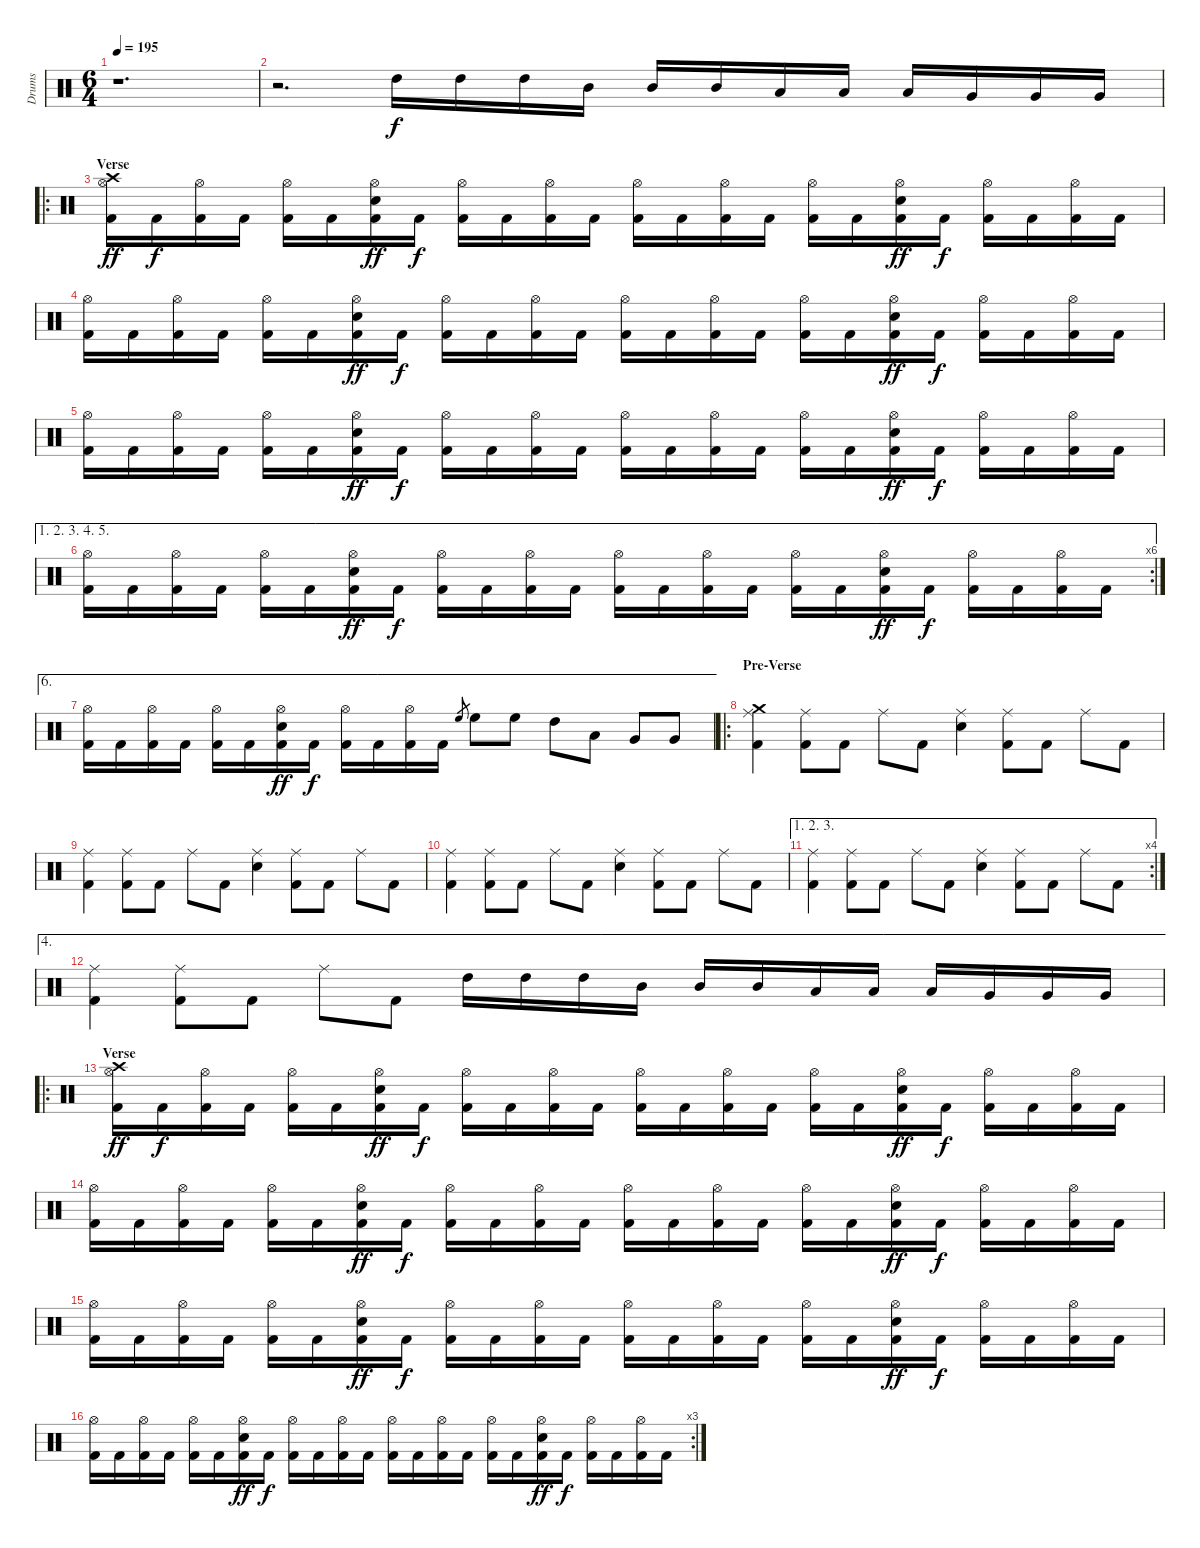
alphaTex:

\track ("Drums" "Drums") {instrument percussion}
\staff {score}
\articulation defaults
\ts (6 4)
\tempo 195
\clef neutral
\ks c
r.1{d dy f} |
r.2{d} "High Tom (hit)".16 "High Tom (hit)".16 "High Tom (hit)".16 "Mid Tom (hit)".16 "Mid Tom (hit)".16 "Mid Tom (hit)".16 "Low Tom (hit)".16 "Low Tom (hit)".16 "Low Tom (hit)".16 "Very Low Tom (hit)".16 "Very Low Tom (hit)".16 "Very Low Tom (hit)".16 |
\ro
\section ("" "Verse")
("Hi-Hat (open)" "Crash high (hit)" "Kick (hit) 2").16{dy ff} "Kick (hit) 2".16{dy f} ("Hi-Hat (open)" "Kick (hit) 2").16 "Kick (hit) 2".16 ("Hi-Hat (open)" "Kick (hit) 2").16 "Kick (hit) 2".16 ("Hi-Hat (open)" "Electric Snare (hit)" "Kick (hit) 2").16{dy ff} "Kick (hit) 2".16{dy f} ("Hi-Hat (open)" "Kick (hit) 2").16 "Kick (hit) 2".16 ("Hi-Hat (open)" "Kick (hit) 2").16 "Kick (hit) 2".16 ("Hi-Hat (open)" "Kick (hit) 2").16 "Kick (hit) 2".16 ("Hi-Hat (open)" "Kick (hit) 2").16 "Kick (hit) 2".16 ("Hi-Hat (open)" "Kick (hit) 2").16 "Kick (hit) 2".16 ("Hi-Hat (open)" "Electric Snare (hit)" "Kick (hit) 2").16{dy ff} "Kick (hit) 2".16{dy f} ("Hi-Hat (open)" "Kick (hit) 2").16 "Kick (hit) 2".16 ("Hi-Hat (open)" "Kick (hit) 2").16 "Kick (hit) 2".16 |
("Hi-Hat (open)" "Kick (hit) 2").16 "Kick (hit) 2".16 ("Hi-Hat (open)" "Kick (hit) 2").16 "Kick (hit) 2".16 ("Hi-Hat (open)" "Kick (hit) 2").16 "Kick (hit) 2".16 ("Hi-Hat (open)" "Electric Snare (hit)" "Kick (hit) 2").16{dy ff} "Kick (hit) 2".16{dy f} ("Hi-Hat (open)" "Kick (hit) 2").16 "Kick (hit) 2".16 ("Hi-Hat (open)" "Kick (hit) 2").16 "Kick (hit) 2".16 ("Hi-Hat (open)" "Kick (hit) 2").16 "Kick (hit) 2".16 ("Hi-Hat (open)" "Kick (hit) 2").16 "Kick (hit) 2".16 ("Hi-Hat (open)" "Kick (hit) 2").16 "Kick (hit) 2".16 ("Hi-Hat (open)" "Electric Snare (hit)" "Kick (hit) 2").16{dy ff} "Kick (hit) 2".16{dy f} ("Hi-Hat (open)" "Kick (hit) 2").16 "Kick (hit) 2".16 ("Hi-Hat (open)" "Kick (hit) 2").16 "Kick (hit) 2".16 |
("Hi-Hat (open)" "Kick (hit) 2").16 "Kick (hit) 2".16 ("Hi-Hat (open)" "Kick (hit) 2").16 "Kick (hit) 2".16 ("Hi-Hat (open)" "Kick (hit) 2").16 "Kick (hit) 2".16 ("Hi-Hat (open)" "Electric Snare (hit)" "Kick (hit) 2").16{dy ff} "Kick (hit) 2".16{dy f} ("Hi-Hat (open)" "Kick (hit) 2").16 "Kick (hit) 2".16 ("Hi-Hat (open)" "Kick (hit) 2").16 "Kick (hit) 2".16 ("Hi-Hat (open)" "Kick (hit) 2").16 "Kick (hit) 2".16 ("Hi-Hat (open)" "Kick (hit) 2").16 "Kick (hit) 2".16 ("Hi-Hat (open)" "Kick (hit) 2").16 "Kick (hit) 2".16 ("Hi-Hat (open)" "Electric Snare (hit)" "Kick (hit) 2").16{dy ff} "Kick (hit) 2".16{dy f} ("Hi-Hat (open)" "Kick (hit) 2").16 "Kick (hit) 2".16 ("Hi-Hat (open)" "Kick (hit) 2").16 "Kick (hit) 2".16 |
\ae (1 2 3 4 5)
\rc 6
("Hi-Hat (open)" "Kick (hit) 2").16 "Kick (hit) 2".16 ("Hi-Hat (open)" "Kick (hit) 2").16 "Kick (hit) 2".16 ("Hi-Hat (open)" "Kick (hit) 2").16 "Kick (hit) 2".16 ("Hi-Hat (open)" "Electric Snare (hit)" "Kick (hit) 2").16{dy ff} "Kick (hit) 2".16{dy f} ("Hi-Hat (open)" "Kick (hit) 2").16 "Kick (hit) 2".16 ("Hi-Hat (open)" "Kick (hit) 2").16 "Kick (hit) 2".16 ("Hi-Hat (open)" "Kick (hit) 2").16 "Kick (hit) 2".16 ("Hi-Hat (open)" "Kick (hit) 2").16 "Kick (hit) 2".16 ("Hi-Hat (open)" "Kick (hit) 2").16 "Kick (hit) 2".16 ("Hi-Hat (open)" "Electric Snare (hit)" "Kick (hit) 2").16{dy ff} "Kick (hit) 2".16{dy f} ("Hi-Hat (open)" "Kick (hit) 2").16 "Kick (hit) 2".16 ("Hi-Hat (open)" "Kick (hit) 2").16 "Kick (hit) 2".16 |
\ae 6
("Hi-Hat (open)" "Kick (hit) 2").16 "Kick (hit) 2".16 ("Hi-Hat (open)" "Kick (hit) 2").16 "Kick (hit) 2".16 ("Hi-Hat (open)" "Kick (hit) 2").16 "Kick (hit) 2".16 ("Hi-Hat (open)" "Electric Snare (hit)" "Kick (hit) 2").16{dy ff} "Kick (hit) 2".16{dy f} ("Hi-Hat (open)" "Kick (hit) 2").16 "Kick (hit) 2".16 ("Hi-Hat (open)" "Kick (hit) 2").16 "Kick (hit) 2".16 "High Floor Tom (hit)".8{gr} "High Floor Tom (hit)".8 "High Floor Tom (hit)".8 "High Tom (hit)".8 "Low Tom (hit)".8 "Very Low Tom (hit)".8 "Very Low Tom (hit)".8 |
\ro
\section ("" "Pre-Verse")
("Ride (middle)" "Crash medium (hit)" "Kick (hit) 2").4 ("Ride (middle)" "Kick (hit) 2").8 "Kick (hit) 2".8 "Ride (middle)".8 "Kick (hit) 2".8 ("Ride (middle)" "Electric Snare (hit)").4 ("Ride (middle)" "Kick (hit) 2").8 "Kick (hit) 2".8 "Ride (middle)".8 "Kick (hit) 2".8 |
("Ride (middle)" "Kick (hit) 2").4 ("Ride (middle)" "Kick (hit) 2").8 "Kick (hit) 2".8 "Ride (middle)".8 "Kick (hit) 2".8 ("Ride (middle)" "Electric Snare (hit)").4 ("Ride (middle)" "Kick (hit) 2").8 "Kick (hit) 2".8 "Ride (middle)".8 "Kick (hit) 2".8 |
("Ride (middle)" "Kick (hit) 2").4 ("Ride (middle)" "Kick (hit) 2").8 "Kick (hit) 2".8 "Ride (middle)".8 "Kick (hit) 2".8 ("Ride (middle)" "Electric Snare (hit)").4 ("Ride (middle)" "Kick (hit) 2").8 "Kick (hit) 2".8 "Ride (middle)".8 "Kick (hit) 2".8 |
\ae (1 2 3)
\rc 4
("Ride (middle)" "Kick (hit) 2").4 ("Ride (middle)" "Kick (hit) 2").8 "Kick (hit) 2".8 "Ride (middle)".8 "Kick (hit) 2".8 ("Ride (middle)" "Electric Snare (hit)").4 ("Ride (middle)" "Kick (hit) 2").8 "Kick (hit) 2".8 "Ride (middle)".8 "Kick (hit) 2".8 |
\ae 4
("Ride (middle)" "Kick (hit) 2").4 ("Ride (middle)" "Kick (hit) 2").8 "Kick (hit) 2".8 "Ride (middle)".8 "Kick (hit) 2".8 "High Tom (hit)".16 "High Tom (hit)".16 "High Tom (hit)".16 "Mid Tom (hit)".16 "Mid Tom (hit)".16 "Mid Tom (hit)".16 "Low Tom (hit)".16 "Low Tom (hit)".16 "Low Tom (hit)".16 "Very Low Tom (hit)".16 "Very Low Tom (hit)".16 "Very Low Tom (hit)".16 |
\ro
\section ("" "Verse")
("Hi-Hat (open)" "Crash high (hit)" "Kick (hit) 2").16{dy ff} "Kick (hit) 2".16{dy f} ("Hi-Hat (open)" "Kick (hit) 2").16 "Kick (hit) 2".16 ("Hi-Hat (open)" "Kick (hit) 2").16 "Kick (hit) 2".16 ("Hi-Hat (open)" "Electric Snare (hit)" "Kick (hit) 2").16{dy ff} "Kick (hit) 2".16{dy f} ("Hi-Hat (open)" "Kick (hit) 2").16 "Kick (hit) 2".16 ("Hi-Hat (open)" "Kick (hit) 2").16 "Kick (hit) 2".16 ("Hi-Hat (open)" "Kick (hit) 2").16 "Kick (hit) 2".16 ("Hi-Hat (open)" "Kick (hit) 2").16 "Kick (hit) 2".16 ("Hi-Hat (open)" "Kick (hit) 2").16 "Kick (hit) 2".16 ("Hi-Hat (open)" "Electric Snare (hit)" "Kick (hit) 2").16{dy ff} "Kick (hit) 2".16{dy f} ("Hi-Hat (open)" "Kick (hit) 2").16 "Kick (hit) 2".16 ("Hi-Hat (open)" "Kick (hit) 2").16 "Kick (hit) 2".16 |
("Hi-Hat (open)" "Kick (hit) 2").16 "Kick (hit) 2".16 ("Hi-Hat (open)" "Kick (hit) 2").16 "Kick (hit) 2".16 ("Hi-Hat (open)" "Kick (hit) 2").16 "Kick (hit) 2".16 ("Hi-Hat (open)" "Electric Snare (hit)" "Kick (hit) 2").16{dy ff} "Kick (hit) 2".16{dy f} ("Hi-Hat (open)" "Kick (hit) 2").16 "Kick (hit) 2".16 ("Hi-Hat (open)" "Kick (hit) 2").16 "Kick (hit) 2".16 ("Hi-Hat (open)" "Kick (hit) 2").16 "Kick (hit) 2".16 ("Hi-Hat (open)" "Kick (hit) 2").16 "Kick (hit) 2".16 ("Hi-Hat (open)" "Kick (hit) 2").16 "Kick (hit) 2".16 ("Hi-Hat (open)" "Electric Snare (hit)" "Kick (hit) 2").16{dy ff} "Kick (hit) 2".16{dy f} ("Hi-Hat (open)" "Kick (hit) 2").16 "Kick (hit) 2".16 ("Hi-Hat (open)" "Kick (hit) 2").16 "Kick (hit) 2".16 |
("Hi-Hat (open)" "Kick (hit) 2").16 "Kick (hit) 2".16 ("Hi-Hat (open)" "Kick (hit) 2").16 "Kick (hit) 2".16 ("Hi-Hat (open)" "Kick (hit) 2").16 "Kick (hit) 2".16 ("Hi-Hat (open)" "Electric Snare (hit)" "Kick (hit) 2").16{dy ff} "Kick (hit) 2".16{dy f} ("Hi-Hat (open)" "Kick (hit) 2").16 "Kick (hit) 2".16 ("Hi-Hat (open)" "Kick (hit) 2").16 "Kick (hit) 2".16 ("Hi-Hat (open)" "Kick (hit) 2").16 "Kick (hit) 2".16 ("Hi-Hat (open)" "Kick (hit) 2").16 "Kick (hit) 2".16 ("Hi-Hat (open)" "Kick (hit) 2").16 "Kick (hit) 2".16 ("Hi-Hat (open)" "Electric Snare (hit)" "Kick (hit) 2").16{dy ff} "Kick (hit) 2".16{dy f} ("Hi-Hat (open)" "Kick (hit) 2").16 "Kick (hit) 2".16 ("Hi-Hat (open)" "Kick (hit) 2").16 "Kick (hit) 2".16 |
\rc 3
("Hi-Hat (open)" "Kick (hit) 2").16 "Kick (hit) 2".16 ("Hi-Hat (open)" "Kick (hit) 2").16 "Kick (hit) 2".16 ("Hi-Hat (open)" "Kick (hit) 2").16 "Kick (hit) 2".16 ("Hi-Hat (open)" "Electric Snare (hit)" "Kick (hit) 2").16{dy ff} "Kick (hit) 2".16{dy f} ("Hi-Hat (open)" "Kick (hit) 2").16 "Kick (hit) 2".16 ("Hi-Hat (open)" "Kick (hit) 2").16 "Kick (hit) 2".16 ("Hi-Hat (open)" "Kick (hit) 2").16 "Kick (hit) 2".16 ("Hi-Hat (open)" "Kick (hit) 2").16 "Kick (hit) 2".16 ("Hi-Hat (open)" "Kick (hit) 2").16 "Kick (hit) 2".16 ("Hi-Hat (open)" "Electric Snare (hit)" "Kick (hit) 2").16{dy ff} "Kick (hit) 2".16{dy f} ("Hi-Hat (open)" "Kick (hit) 2").16 "Kick (hit) 2".16 ("Hi-Hat (open)" "Kick (hit) 2").16 "Kick (hit) 2".16
